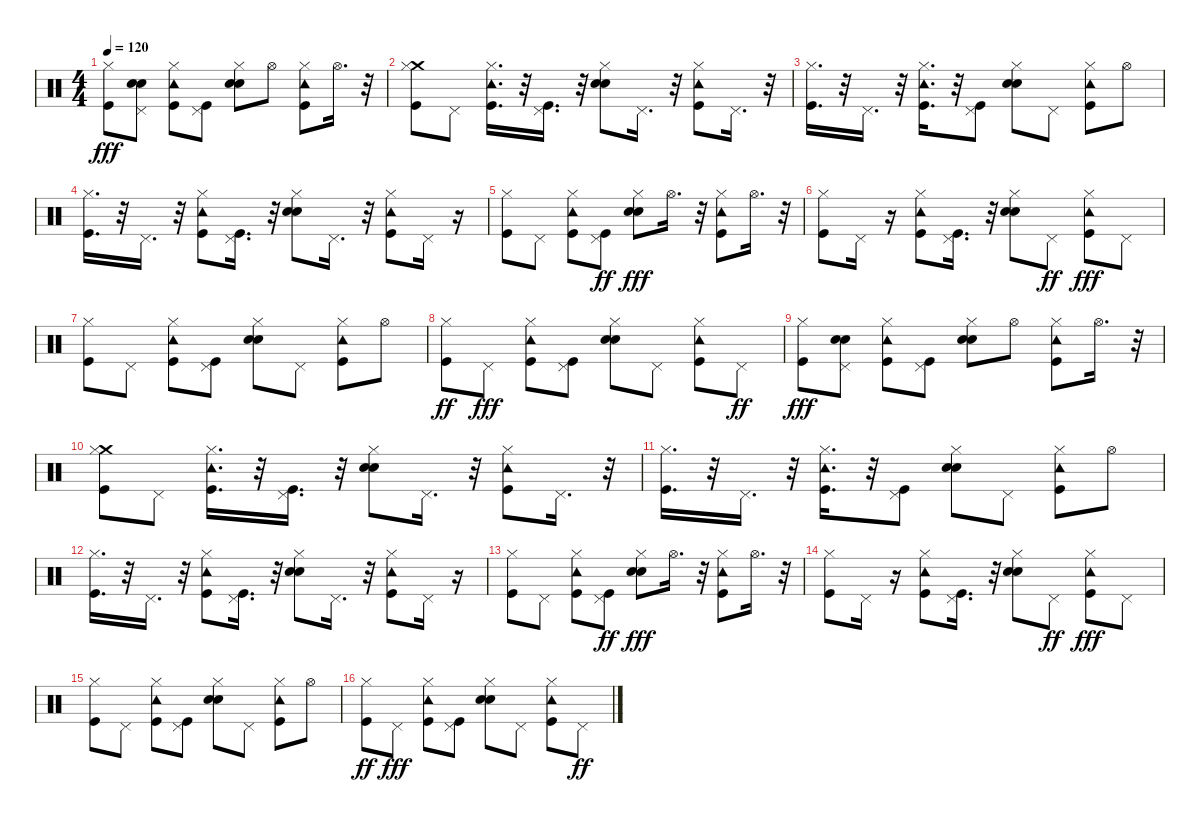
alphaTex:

\track "" {instrument percussion}
\staff {score}
\articulation defaults
\ts (4 4)
\tempo 120
\clef neutral
\ks c
("Hi-Hat (closed)" "Kick (hit)").8{dy fff} ("Pedal Hi-Hat (hit)" "Hand Clap (hit)" "Snare (hit) 2").8 ("Tambourine (hit)" "Hi-Hat (closed)" "Kick (hit)").8 ("Pedal Hi-Hat (hit)" "Kick (hit)").8 ("Hi-Hat (closed)" "Hand Clap (hit)" "Snare (hit) 2").8 "Hi-Hat (open)".8 ("Tambourine (hit)" "Hi-Hat (closed)" "Kick (hit)").8 "Hi-Hat (open)".16{d} r.32 |
("Crash medium (hit)" "Kick (hit)" "Hi-Hat (closed)").8 "Pedal Hi-Hat (hit)".8 ("Hi-Hat (closed)" "Kick (hit)" "Tambourine (hit)").16{d} r.32 ("Pedal Hi-Hat (hit)" "Kick (hit)").16{d} r.32 ("Hand Clap (hit)" "Hi-Hat (closed)" "Snare (hit) 2").8 "Pedal Hi-Hat (hit)".16{d} r.32 ("Hi-Hat (closed)" "Kick (hit)" "Tambourine (hit)").8 "Pedal Hi-Hat (hit)".16{d} r.32 |
("Hi-Hat (closed)" "Kick (hit)").16{d} r.32 "Pedal Hi-Hat (hit)".16{d} r.32 ("Hi-Hat (closed)" "Kick (hit)" "Tambourine (hit)").16{d} r.32 ("Pedal Hi-Hat (hit)" "Kick (hit)").8 ("Hi-Hat (closed)" "Hand Clap (hit)" "Snare (hit) 2").8 "Pedal Hi-Hat (hit)".8 ("Hi-Hat (closed)" "Kick (hit)" "Tambourine (hit)").8 "Hi-Hat (open)".8 |
("Hi-Hat (closed)" "Kick (hit)").16{d} r.32 "Pedal Hi-Hat (hit)".16{d} r.32 ("Tambourine (hit)" "Kick (hit)" "Hi-Hat (closed)").8 ("Pedal Hi-Hat (hit)" "Kick (hit)").16{d} r.32 ("Hi-Hat (closed)" "Hand Clap (hit)" "Snare (hit) 2").8 "Pedal Hi-Hat (hit)".16{d} r.32 ("Tambourine (hit)" "Hi-Hat (closed)" "Kick (hit)").8 "Pedal Hi-Hat (hit)".16 r.16 |
("Kick (hit)" "Hi-Hat (closed)").8 "Pedal Hi-Hat (hit)".8 ("Tambourine (hit)" "Hi-Hat (closed)" "Kick (hit)").8 ("Kick (hit)" "Pedal Hi-Hat (hit)").8{dy ff} ("Hi-Hat (closed)" "Hand Clap (hit)" "Snare (hit) 2").8{dy fff} "Hi-Hat (open)".16{d} r.32 ("Hi-Hat (closed)" "Kick (hit)" "Tambourine (hit)").8 "Hi-Hat (open)".16{d} r.32 |
("Kick (hit)" "Hi-Hat (closed)").8 "Pedal Hi-Hat (hit)".16 r.16 ("Kick (hit)" "Hi-Hat (closed)" "Tambourine (hit)").8 ("Kick (hit)" "Pedal Hi-Hat (hit)").16{d} r.32 ("Hand Clap (hit)" "Hi-Hat (closed)" "Snare (hit) 2").8 "Pedal Hi-Hat (hit)".8{dy ff} ("Hi-Hat (closed)" "Kick (hit)" "Tambourine (hit)").8{dy fff} "Pedal Hi-Hat (hit)".8 |
("Kick (hit)" "Hi-Hat (closed)").8 "Pedal Hi-Hat (hit)".8 ("Tambourine (hit)" "Hi-Hat (closed)" "Kick (hit)").8 ("Kick (hit)" "Pedal Hi-Hat (hit)").8 ("Hi-Hat (closed)" "Hand Clap (hit)" "Snare (hit) 2").8 "Pedal Hi-Hat (hit)".8 ("Tambourine (hit)" "Hi-Hat (closed)" "Kick (hit)").8 "Hi-Hat (open)".8 |
("Kick (hit)" "Hi-Hat (closed)").8{dy ff} "Pedal Hi-Hat (hit)".8{dy fff} ("Kick (hit)" "Hi-Hat (closed)" "Tambourine (hit)").8 ("Kick (hit)" "Pedal Hi-Hat (hit)").8 ("Hand Clap (hit)" "Hi-Hat (closed)" "Snare (hit) 2").8 "Pedal Hi-Hat (hit)".8 ("Tambourine (hit)" "Kick (hit)" "Hi-Hat (closed)").8 "Pedal Hi-Hat (hit)".8{dy ff} |
("Hi-Hat (closed)" "Kick (hit)").8{dy fff} ("Pedal Hi-Hat (hit)" "Hand Clap (hit)" "Snare (hit) 2").8 ("Tambourine (hit)" "Hi-Hat (closed)" "Kick (hit)").8 ("Pedal Hi-Hat (hit)" "Kick (hit)").8 ("Hi-Hat (closed)" "Hand Clap (hit)" "Snare (hit) 2").8 "Hi-Hat (open)".8 ("Tambourine (hit)" "Hi-Hat (closed)" "Kick (hit)").8 "Hi-Hat (open)".16{d} r.32 |
("Crash medium (hit)" "Kick (hit)" "Hi-Hat (closed)").8 "Pedal Hi-Hat (hit)".8 ("Hi-Hat (closed)" "Kick (hit)" "Tambourine (hit)").16{d} r.32 ("Pedal Hi-Hat (hit)" "Kick (hit)").16{d} r.32 ("Hand Clap (hit)" "Hi-Hat (closed)" "Snare (hit) 2").8 "Pedal Hi-Hat (hit)".16{d} r.32 ("Hi-Hat (closed)" "Kick (hit)" "Tambourine (hit)").8 "Pedal Hi-Hat (hit)".16{d} r.32 |
("Hi-Hat (closed)" "Kick (hit)").16{d} r.32 "Pedal Hi-Hat (hit)".16{d} r.32 ("Hi-Hat (closed)" "Kick (hit)" "Tambourine (hit)").16{d} r.32 ("Pedal Hi-Hat (hit)" "Kick (hit)").8 ("Hi-Hat (closed)" "Hand Clap (hit)" "Snare (hit) 2").8 "Pedal Hi-Hat (hit)".8 ("Hi-Hat (closed)" "Kick (hit)" "Tambourine (hit)").8 "Hi-Hat (open)".8 |
("Hi-Hat (closed)" "Kick (hit)").16{d} r.32 "Pedal Hi-Hat (hit)".16{d} r.32 ("Tambourine (hit)" "Kick (hit)" "Hi-Hat (closed)").8 ("Pedal Hi-Hat (hit)" "Kick (hit)").16{d} r.32 ("Hi-Hat (closed)" "Hand Clap (hit)" "Snare (hit) 2").8 "Pedal Hi-Hat (hit)".16{d} r.32 ("Tambourine (hit)" "Hi-Hat (closed)" "Kick (hit)").8 "Pedal Hi-Hat (hit)".16 r.16 |
("Kick (hit)" "Hi-Hat (closed)").8 "Pedal Hi-Hat (hit)".8 ("Tambourine (hit)" "Hi-Hat (closed)" "Kick (hit)").8 ("Kick (hit)" "Pedal Hi-Hat (hit)").8{dy ff} ("Hi-Hat (closed)" "Hand Clap (hit)" "Snare (hit) 2").8{dy fff} "Hi-Hat (open)".16{d} r.32 ("Hi-Hat (closed)" "Kick (hit)" "Tambourine (hit)").8 "Hi-Hat (open)".16{d} r.32 |
("Kick (hit)" "Hi-Hat (closed)").8 "Pedal Hi-Hat (hit)".16 r.16 ("Kick (hit)" "Hi-Hat (closed)" "Tambourine (hit)").8 ("Kick (hit)" "Pedal Hi-Hat (hit)").16{d} r.32 ("Hand Clap (hit)" "Hi-Hat (closed)" "Snare (hit) 2").8 "Pedal Hi-Hat (hit)".8{dy ff} ("Hi-Hat (closed)" "Kick (hit)" "Tambourine (hit)").8{dy fff} "Pedal Hi-Hat (hit)".8 |
("Kick (hit)" "Hi-Hat (closed)").8 "Pedal Hi-Hat (hit)".8 ("Tambourine (hit)" "Hi-Hat (closed)" "Kick (hit)").8 ("Kick (hit)" "Pedal Hi-Hat (hit)").8 ("Hi-Hat (closed)" "Hand Clap (hit)" "Snare (hit) 2").8 "Pedal Hi-Hat (hit)".8 ("Tambourine (hit)" "Hi-Hat (closed)" "Kick (hit)").8 "Hi-Hat (open)".8 |
("Kick (hit)" "Hi-Hat (closed)").8{dy ff} "Pedal Hi-Hat (hit)".8{dy fff} ("Kick (hit)" "Hi-Hat (closed)" "Tambourine (hit)").8 ("Kick (hit)" "Pedal Hi-Hat (hit)").8 ("Hand Clap (hit)" "Hi-Hat (closed)" "Snare (hit) 2").8 "Pedal Hi-Hat (hit)".8 ("Tambourine (hit)" "Kick (hit)" "Hi-Hat (closed)").8 "Pedal Hi-Hat (hit)".8{dy ff}
